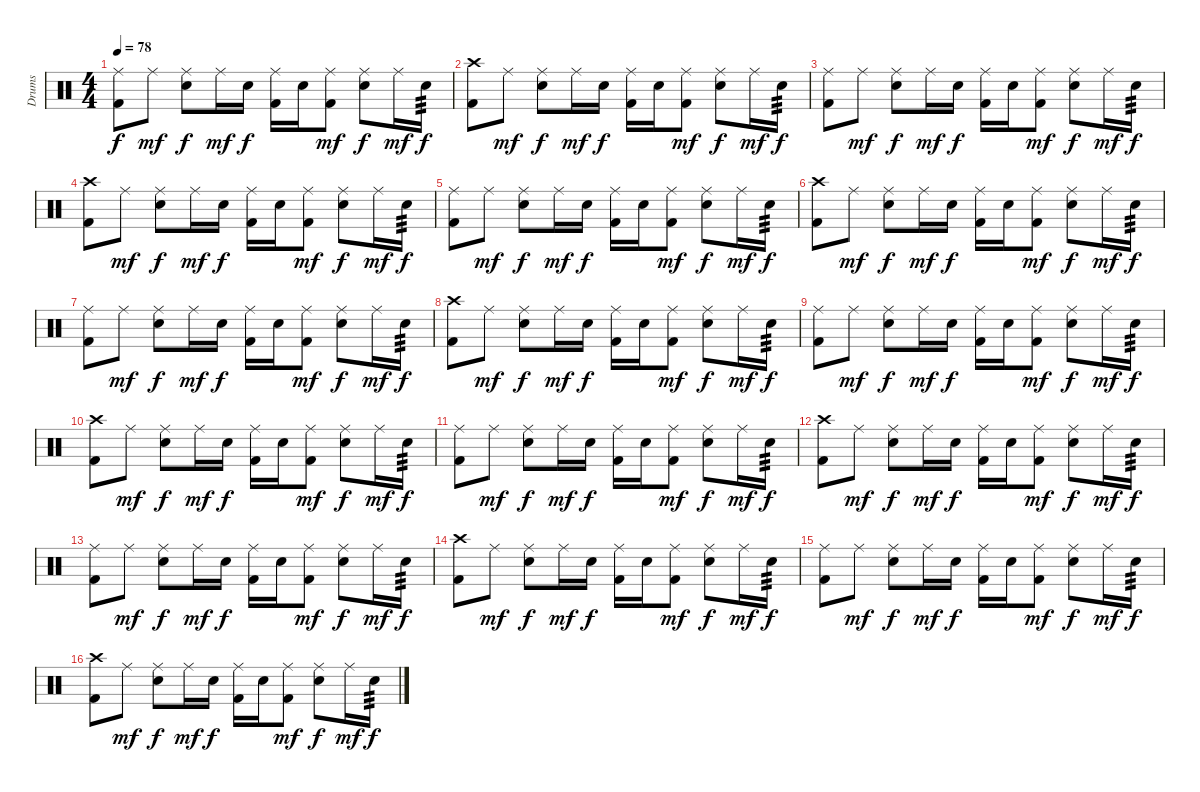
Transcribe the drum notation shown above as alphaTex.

\track ("Drums" "Drums") {instrument percussion}
\staff {score}
\articulation defaults
\ts (4 4)
\tempo 78
\clef neutral
\ks c
("Ride (middle)" "Kick (hit) 2").8{dy f} "Ride (middle)".8{dy mf} ("Ride (middle)" "Snare (hit) 2").8{dy f} "Ride (middle)".16{dy mf} "Snare (hit) 2".16{dy f} ("Ride (middle)" "Kick (hit) 2").16 "Snare (hit) 2".16 ("Ride (middle)" "Kick (hit) 2").8{dy mf} ("Ride (middle)" "Snare (hit) 2").8{dy f} "Ride (middle)".16{dy mf} "Snare (hit) 2".16{tp 3 dy f} |
("Crash high (hit)" "Kick (hit) 2").8 "Ride (middle)".8{dy mf} ("Ride (middle)" "Snare (hit) 2").8{dy f} "Ride (middle)".16{dy mf} "Snare (hit) 2".16{dy f} ("Ride (middle)" "Kick (hit) 2").16 "Snare (hit) 2".16 ("Ride (middle)" "Kick (hit) 2").8{dy mf} ("Ride (middle)" "Snare (hit) 2").8{dy f} "Ride (middle)".16{dy mf} "Snare (hit) 2".16{tp 3 dy f} |
("Ride (middle)" "Kick (hit) 2").8 "Ride (middle)".8{dy mf} ("Ride (middle)" "Snare (hit) 2").8{dy f} "Ride (middle)".16{dy mf} "Snare (hit) 2".16{dy f} ("Ride (middle)" "Kick (hit) 2").16 "Snare (hit) 2".16 ("Ride (middle)" "Kick (hit) 2").8{dy mf} ("Ride (middle)" "Snare (hit) 2").8{dy f} "Ride (middle)".16{dy mf} "Snare (hit) 2".16{tp 3 dy f} |
("Crash high (hit)" "Kick (hit) 2").8 "Ride (middle)".8{dy mf} ("Ride (middle)" "Snare (hit) 2").8{dy f} "Ride (middle)".16{dy mf} "Snare (hit) 2".16{dy f} ("Ride (middle)" "Kick (hit) 2").16 "Snare (hit) 2".16 ("Ride (middle)" "Kick (hit) 2").8{dy mf} ("Ride (middle)" "Snare (hit) 2").8{dy f} "Ride (middle)".16{dy mf} "Snare (hit) 2".16{tp 3 dy f} |
("Ride (middle)" "Kick (hit) 2").8 "Ride (middle)".8{dy mf} ("Ride (middle)" "Snare (hit) 2").8{dy f} "Ride (middle)".16{dy mf} "Snare (hit) 2".16{dy f} ("Ride (middle)" "Kick (hit) 2").16 "Snare (hit) 2".16 ("Ride (middle)" "Kick (hit) 2").8{dy mf} ("Ride (middle)" "Snare (hit) 2").8{dy f} "Ride (middle)".16{dy mf} "Snare (hit) 2".16{tp 3 dy f} |
("Crash high (hit)" "Kick (hit) 2").8 "Ride (middle)".8{dy mf} ("Ride (middle)" "Snare (hit) 2").8{dy f} "Ride (middle)".16{dy mf} "Snare (hit) 2".16{dy f} ("Ride (middle)" "Kick (hit) 2").16 "Snare (hit) 2".16 ("Ride (middle)" "Kick (hit) 2").8{dy mf} ("Ride (middle)" "Snare (hit) 2").8{dy f} "Ride (middle)".16{dy mf} "Snare (hit) 2".16{tp 3 dy f} |
("Ride (middle)" "Kick (hit) 2").8 "Ride (middle)".8{dy mf} ("Ride (middle)" "Snare (hit) 2").8{dy f} "Ride (middle)".16{dy mf} "Snare (hit) 2".16{dy f} ("Ride (middle)" "Kick (hit) 2").16 "Snare (hit) 2".16 ("Ride (middle)" "Kick (hit) 2").8{dy mf} ("Ride (middle)" "Snare (hit) 2").8{dy f} "Ride (middle)".16{dy mf} "Snare (hit) 2".16{tp 3 dy f} |
("Crash high (hit)" "Kick (hit) 2").8 "Ride (middle)".8{dy mf} ("Ride (middle)" "Snare (hit) 2").8{dy f} "Ride (middle)".16{dy mf} "Snare (hit) 2".16{dy f} ("Ride (middle)" "Kick (hit) 2").16 "Snare (hit) 2".16 ("Ride (middle)" "Kick (hit) 2").8{dy mf} ("Ride (middle)" "Snare (hit) 2").8{dy f} "Ride (middle)".16{dy mf} "Snare (hit) 2".16{tp 3 dy f} |
("Ride (middle)" "Kick (hit) 2").8 "Ride (middle)".8{dy mf} ("Ride (middle)" "Snare (hit) 2").8{dy f} "Ride (middle)".16{dy mf} "Snare (hit) 2".16{dy f} ("Ride (middle)" "Kick (hit) 2").16 "Snare (hit) 2".16 ("Ride (middle)" "Kick (hit) 2").8{dy mf} ("Ride (middle)" "Snare (hit) 2").8{dy f} "Ride (middle)".16{dy mf} "Snare (hit) 2".16{tp 3 dy f} |
("Crash high (hit)" "Kick (hit) 2").8 "Ride (middle)".8{dy mf} ("Ride (middle)" "Snare (hit) 2").8{dy f} "Ride (middle)".16{dy mf} "Snare (hit) 2".16{dy f} ("Ride (middle)" "Kick (hit) 2").16 "Snare (hit) 2".16 ("Ride (middle)" "Kick (hit) 2").8{dy mf} ("Ride (middle)" "Snare (hit) 2").8{dy f} "Ride (middle)".16{dy mf} "Snare (hit) 2".16{tp 3 dy f} |
("Ride (middle)" "Kick (hit) 2").8 "Ride (middle)".8{dy mf} ("Ride (middle)" "Snare (hit) 2").8{dy f} "Ride (middle)".16{dy mf} "Snare (hit) 2".16{dy f} ("Ride (middle)" "Kick (hit) 2").16 "Snare (hit) 2".16 ("Ride (middle)" "Kick (hit) 2").8{dy mf} ("Ride (middle)" "Snare (hit) 2").8{dy f} "Ride (middle)".16{dy mf} "Snare (hit) 2".16{tp 3 dy f} |
("Crash high (hit)" "Kick (hit) 2").8 "Ride (middle)".8{dy mf} ("Ride (middle)" "Snare (hit) 2").8{dy f} "Ride (middle)".16{dy mf} "Snare (hit) 2".16{dy f} ("Ride (middle)" "Kick (hit) 2").16 "Snare (hit) 2".16 ("Ride (middle)" "Kick (hit) 2").8{dy mf} ("Ride (middle)" "Snare (hit) 2").8{dy f} "Ride (middle)".16{dy mf} "Snare (hit) 2".16{tp 3 dy f} |
("Ride (middle)" "Kick (hit) 2").8 "Ride (middle)".8{dy mf} ("Ride (middle)" "Snare (hit) 2").8{dy f} "Ride (middle)".16{dy mf} "Snare (hit) 2".16{dy f} ("Ride (middle)" "Kick (hit) 2").16 "Snare (hit) 2".16 ("Ride (middle)" "Kick (hit) 2").8{dy mf} ("Ride (middle)" "Snare (hit) 2").8{dy f} "Ride (middle)".16{dy mf} "Snare (hit) 2".16{tp 3 dy f} |
("Crash high (hit)" "Kick (hit) 2").8 "Ride (middle)".8{dy mf} ("Ride (middle)" "Snare (hit) 2").8{dy f} "Ride (middle)".16{dy mf} "Snare (hit) 2".16{dy f} ("Ride (middle)" "Kick (hit) 2").16 "Snare (hit) 2".16 ("Ride (middle)" "Kick (hit) 2").8{dy mf} ("Ride (middle)" "Snare (hit) 2").8{dy f} "Ride (middle)".16{dy mf} "Snare (hit) 2".16{tp 3 dy f} |
("Ride (middle)" "Kick (hit) 2").8 "Ride (middle)".8{dy mf} ("Ride (middle)" "Snare (hit) 2").8{dy f} "Ride (middle)".16{dy mf} "Snare (hit) 2".16{dy f} ("Ride (middle)" "Kick (hit) 2").16 "Snare (hit) 2".16 ("Ride (middle)" "Kick (hit) 2").8{dy mf} ("Ride (middle)" "Snare (hit) 2").8{dy f} "Ride (middle)".16{dy mf} "Snare (hit) 2".16{tp 3 dy f} |
("Crash high (hit)" "Kick (hit) 2").8 "Ride (middle)".8{dy mf} ("Ride (middle)" "Snare (hit) 2").8{dy f} "Ride (middle)".16{dy mf} "Snare (hit) 2".16{dy f} ("Ride (middle)" "Kick (hit) 2").16 "Snare (hit) 2".16 ("Ride (middle)" "Kick (hit) 2").8{dy mf} ("Ride (middle)" "Snare (hit) 2").8{dy f} "Ride (middle)".16{dy mf} "Snare (hit) 2".16{tp 3 dy f}
